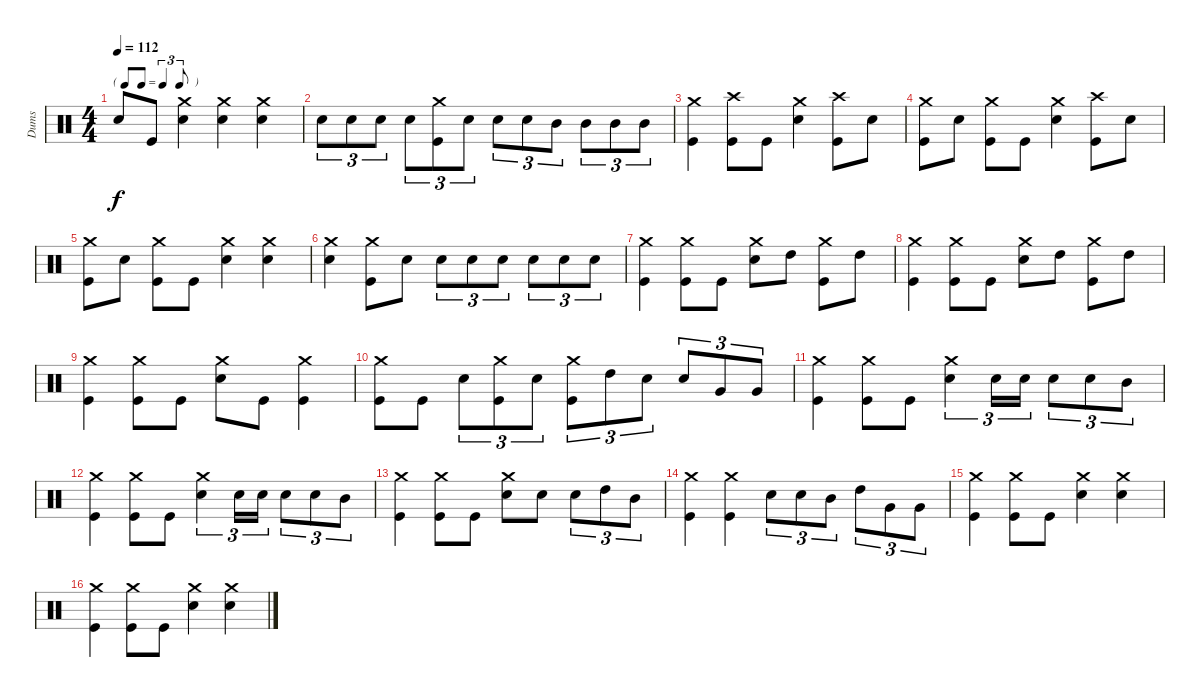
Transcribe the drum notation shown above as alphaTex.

\track ("Dums" "Dums") {instrument percussion}
\staff {score}
\articulation defaults
\ts (4 4)
\tf triplet8th
\tempo 112
\clef neutral
\ks c "Electric Snare (hit)".8{dy f} "Kick (hit)".8
("Electric Snare (hit)" "Crash medium (hit)").4 ("Electric Snare (hit)" "Crash medium (hit)").4 ("Electric Snare (hit)" "Crash medium (hit)").4 |
"Electric Snare (hit)".8{tu (3 2)} "Electric Snare (hit)".8{tu (3 2)} "Electric Snare (hit)".8{tu (3 2)} "Electric Snare (hit)".8{tu (3 2)} ("Kick (hit)" "Crash medium (hit)").8{tu (3 2)} "Electric Snare (hit)".8{tu (3 2)} "Electric Snare (hit)".8{tu (3 2)} "Electric Snare (hit)".8{tu (3 2)} "Mid Tom (hit)".8{tu (3 2)} "Mid Tom (hit)".8{tu (3 2)} "Mid Tom (hit)".8{tu (3 2)} "Mid Tom (hit)".8{tu (3 2)} |
("Kick (hit)" "Crash medium (hit)").4 ("Kick (hit)" "Crash high (hit)").8 "Kick (hit)".8 ("Electric Snare (hit)" "Crash medium (hit)").4 ("Kick (hit)" "Crash high (hit)").8 "Electric Snare (hit)".8 |
("Kick (hit)" "Crash medium (hit)").8 "Electric Snare (hit)".8 ("Kick (hit)" "Crash medium (hit)").8 "Kick (hit)".8 ("Electric Snare (hit)" "Crash medium (hit)").4 ("Kick (hit)" "Crash high (hit)").8 "Electric Snare (hit)".8 |
("Kick (hit)" "Crash medium (hit)").8 "Electric Snare (hit)".8 ("Kick (hit)" "Crash medium (hit)").8 "Kick (hit)".8 ("Electric Snare (hit)" "Crash medium (hit)").4 ("Electric Snare (hit)" "Crash medium (hit)").4 |
("Electric Snare (hit)" "Crash medium (hit)").4 ("Kick (hit)" "Crash medium (hit)").8 "Electric Snare (hit)".8 "Electric Snare (hit)".8{tu (3 2)} "Electric Snare (hit)".8{tu (3 2)} "Electric Snare (hit)".8{tu (3 2)} "Electric Snare (hit)".8{tu (3 2)} "Electric Snare (hit)".8{tu (3 2)} "Electric Snare (hit)".8{tu (3 2)} |
("Kick (hit)" "Crash medium (hit)").4 ("Kick (hit)" "Crash medium (hit)").8 "Kick (hit)".8 ("Electric Snare (hit)" "Crash medium (hit)").8 "High Tom (hit)".8 ("Kick (hit)" "Crash medium (hit)").8 "High Tom (hit)".8 |
("Kick (hit)" "Crash medium (hit)").4 ("Kick (hit)" "Crash medium (hit)").8 "Kick (hit)".8 ("Electric Snare (hit)" "Crash medium (hit)").8 "High Tom (hit)".8 ("Kick (hit)" "Crash medium (hit)").8 "High Tom (hit)".8 |
("Kick (hit)" "Crash medium (hit)").4 ("Kick (hit)" "Crash medium (hit)").8 "Kick (hit)".8 ("Electric Snare (hit)" "Crash medium (hit)").8 "Kick (hit)".8 ("Kick (hit)" "Crash medium (hit)").4 |
("Kick (hit)" "Crash medium (hit)").8 "Kick (hit)".8 "Electric Snare (hit)".8{tu (3 2)} ("Kick (hit)" "Crash medium (hit)").8{tu (3 2)} "Electric Snare (hit)".8{tu (3 2)} ("Kick (hit)" "Crash medium (hit)").8{tu (3 2)} "High Tom (hit)".8{tu (3 2)} "Electric Snare (hit)".8{tu (3 2)} "Electric Snare (hit)".8{tu (3 2)} "Very Low Tom (hit)".8{tu (3 2)} "Very Low Tom (hit)".8{tu (3 2)} |
("Kick (hit)" "Crash medium (hit)").4 ("Kick (hit)" "Crash medium (hit)").8 "Kick (hit)".8 ("Electric Snare (hit)" "Crash medium (hit)").4{tu (3 2)} "Electric Snare (hit)".16{tu (3 2)} "Electric Snare (hit)".16{tu (3 2)} "Electric Snare (hit)".8{tu (3 2)} "Electric Snare (hit)".8{tu (3 2)} "Mid Tom (hit)".8{tu (3 2)} |
("Kick (hit)" "Crash medium (hit)").4 ("Kick (hit)" "Crash medium (hit)").8 "Kick (hit)".8 ("Electric Snare (hit)" "Crash medium (hit)").4{tu (3 2)} "Electric Snare (hit)".16{tu (3 2)} "Electric Snare (hit)".16{tu (3 2)} "Electric Snare (hit)".8{tu (3 2)} "Electric Snare (hit)".8{tu (3 2)} "Mid Tom (hit)".8{tu (3 2)} |
("Kick (hit)" "Crash medium (hit)").4 ("Kick (hit)" "Crash medium (hit)").8 "Kick (hit)".8 ("Electric Snare (hit)" "Crash medium (hit)").8 "Electric Snare (hit)".8 "Electric Snare (hit)".8{tu (3 2)} "High Tom (hit)".8{tu (3 2)} "Mid Tom (hit)".8{tu (3 2)} |
("Kick (hit)" "Crash medium (hit)").4 ("Kick (hit)" "Crash medium (hit)").4 "Electric Snare (hit)".8{tu (3 2)} "Electric Snare (hit)".8{tu (3 2)} "Mid Tom (hit)".8{tu (3 2)} "High Tom (hit)".8{tu (3 2)} "Very Low Tom (hit)".8{tu (3 2)} "Very Low Tom (hit)".8{tu (3 2)} |
("Kick (hit)" "Crash medium (hit)").4 ("Kick (hit)" "Crash medium (hit)").8 "Kick (hit)".8 ("Electric Snare (hit)" "Crash medium (hit)").4 ("Electric Snare (hit)" "Crash medium (hit)").4 |
("Kick (hit)" "Crash medium (hit)").4 ("Kick (hit)" "Crash medium (hit)").8 "Kick (hit)".8 ("Electric Snare (hit)" "Crash medium (hit)").4 ("Electric Snare (hit)" "Crash medium (hit)").4
